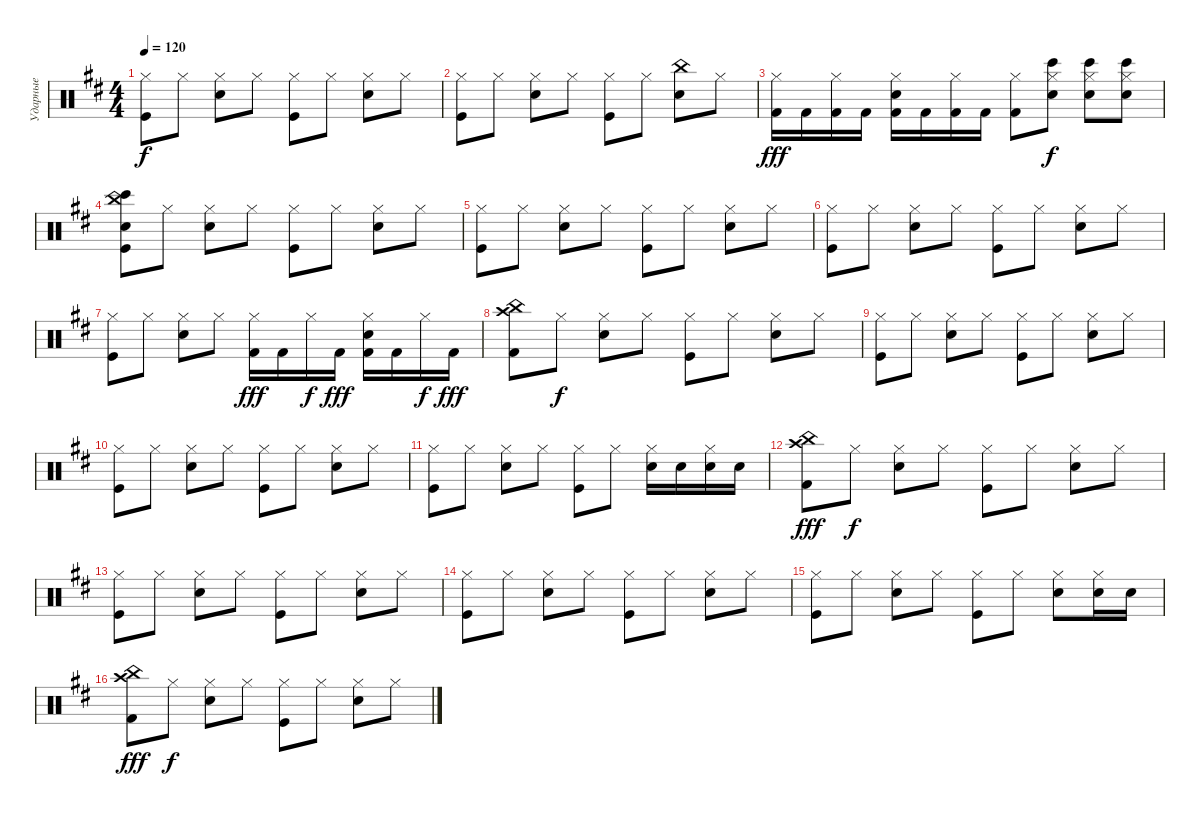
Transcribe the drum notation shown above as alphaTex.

\track ("Ударные" "Ударные") {instrument percussion}
\staff {score}
\articulation defaults
\ts (4 4)
\tempo 120
\clef neutral
\ks bminor
("Hi-Hat (closed)" "Kick (hit)").8{dy f} "Hi-Hat (closed)".8 ("Hi-Hat (closed)" "Snare (hit) 2").8 "Hi-Hat (closed)".8 ("Hi-Hat (closed)" "Kick (hit)").8 "Hi-Hat (closed)".8 ("Hi-Hat (closed)" "Snare (hit) 2").8 "Hi-Hat (closed)".8 |
("Hi-Hat (closed)" "Kick (hit)").8 "Hi-Hat (closed)".8 ("Hi-Hat (closed)" "Snare (hit) 2").8 "Hi-Hat (closed)".8 ("Hi-Hat (closed)" "Kick (hit)").8 "Hi-Hat (closed)".8 ("China (hit)" "Snare (hit) 2").8{balance 14} "Hi-Hat (closed)".8{balance 8} |
("Hi-Hat (closed)" "Kick (hit) 2").16{dy fff} "Kick (hit) 2".16 ("Hi-Hat (closed)" "Kick (hit) 2").16 "Kick (hit) 2".16 ("Hi-Hat (closed)" "Snare (hit) 2" "Kick (hit) 2").16 "Kick (hit) 2".16 ("Hi-Hat (closed)" "Kick (hit) 2").16 "Kick (hit) 2".16 ("Hi-Hat (closed)" "Kick (hit) 2").8 ("Hi-Hat (closed)" "Snare (hit) 2" "Bongo High (hit)").8{dy f} ("Hi-Hat (closed)" "Bongo High (hit)" "Snare (hit) 2").8 ("Hi-Hat (closed)" "Snare (hit) 2" "Bongo High (hit)").8 |
\ks d
("China (hit)" "Kick (hit)" "Bongo High (hit)" "Hand Clap (hit)").8 "Hi-Hat (closed)".8 ("Hi-Hat (closed)" "Snare (hit) 2").8 "Hi-Hat (closed)".8 ("Hi-Hat (closed)" "Kick (hit)").8 "Hi-Hat (closed)".8 ("Hi-Hat (closed)" "Snare (hit) 2").8 "Hi-Hat (closed)".8 |
("Hi-Hat (closed)" "Kick (hit)").8 "Hi-Hat (closed)".8 ("Hi-Hat (closed)" "Snare (hit) 2").8 "Hi-Hat (closed)".8 ("Hi-Hat (closed)" "Kick (hit)").8 "Hi-Hat (closed)".8 ("Hi-Hat (closed)" "Snare (hit) 2").8 "Hi-Hat (closed)".8 |
\ks bminor
("Hi-Hat (closed)" "Kick (hit)").8 "Hi-Hat (closed)".8 ("Hi-Hat (closed)" "Snare (hit) 2").8 "Hi-Hat (closed)".8 ("Hi-Hat (closed)" "Kick (hit)").8 "Hi-Hat (closed)".8 ("Hi-Hat (closed)" "Snare (hit) 2").8 "Hi-Hat (closed)".8 |
("Hi-Hat (closed)" "Kick (hit)").8 "Hi-Hat (closed)".8 ("Hi-Hat (closed)" "Snare (hit) 2").8 "Hi-Hat (closed)".8 ("Hi-Hat (closed)" "Kick (hit) 2").16{dy fff} "Kick (hit) 2".16 "Hi-Hat (closed)".16{dy f} "Kick (hit) 2".16{dy fff} ("Hi-Hat (closed)" "Snare (hit) 2" "Kick (hit) 2").16 "Kick (hit) 2".16 "Hi-Hat (closed)".16{dy f} "Kick (hit) 2".16{dy fff} |
("China (hit)" "Crash high (hit)" "Kick (hit) 2").8 "Hi-Hat (closed)".8{dy f} ("Hi-Hat (closed)" "Snare (hit) 2").8 "Hi-Hat (closed)".8 ("Hi-Hat (closed)" "Kick (hit)").8 "Hi-Hat (closed)".8 ("Hi-Hat (closed)" "Snare (hit) 2").8 "Hi-Hat (closed)".8 |
\ks d
("Hi-Hat (closed)" "Kick (hit)").8 "Hi-Hat (closed)".8 ("Hi-Hat (closed)" "Snare (hit) 2").8 "Hi-Hat (closed)".8 ("Hi-Hat (closed)" "Kick (hit)").8 "Hi-Hat (closed)".8 ("Hi-Hat (closed)" "Snare (hit) 2").8 "Hi-Hat (closed)".8 |
\ks bminor
("Hi-Hat (closed)" "Kick (hit)").8 "Hi-Hat (closed)".8 ("Hi-Hat (closed)" "Snare (hit) 2").8 "Hi-Hat (closed)".8 ("Hi-Hat (closed)" "Kick (hit)").8 "Hi-Hat (closed)".8 ("Hi-Hat (closed)" "Snare (hit) 2").8 "Hi-Hat (closed)".8 |
("Hi-Hat (closed)" "Kick (hit)").8 "Hi-Hat (closed)".8 ("Hi-Hat (closed)" "Snare (hit) 2").8 "Hi-Hat (closed)".8 ("Hi-Hat (closed)" "Kick (hit)").8 "Hi-Hat (closed)".8 ("Hi-Hat (closed)" "Snare (hit) 2").16 "Snare (hit) 2".16 ("Hi-Hat (closed)" "Snare (hit) 2").16 "Snare (hit) 2".16 |
\ks d
("China (hit)" "Crash high (hit)" "Kick (hit) 2").8{dy fff} "Hi-Hat (closed)".8{dy f} ("Hi-Hat (closed)" "Snare (hit) 2").8 "Hi-Hat (closed)".8 ("Hi-Hat (closed)" "Kick (hit)").8 "Hi-Hat (closed)".8 ("Hi-Hat (closed)" "Snare (hit) 2").8 "Hi-Hat (closed)".8 |
("Hi-Hat (closed)" "Kick (hit)").8 "Hi-Hat (closed)".8 ("Hi-Hat (closed)" "Snare (hit) 2").8 "Hi-Hat (closed)".8 ("Hi-Hat (closed)" "Kick (hit)").8 "Hi-Hat (closed)".8 ("Hi-Hat (closed)" "Snare (hit) 2").8 "Hi-Hat (closed)".8 |
\ks bminor
("Hi-Hat (closed)" "Kick (hit)").8 "Hi-Hat (closed)".8 ("Hi-Hat (closed)" "Snare (hit) 2").8 "Hi-Hat (closed)".8 ("Hi-Hat (closed)" "Kick (hit)").8 "Hi-Hat (closed)".8 ("Hi-Hat (closed)" "Snare (hit) 2").8 "Hi-Hat (closed)".8 |
("Hi-Hat (closed)" "Kick (hit)").8 "Hi-Hat (closed)".8 ("Hi-Hat (closed)" "Snare (hit) 2").8 "Hi-Hat (closed)".8 ("Hi-Hat (closed)" "Kick (hit)").8 "Hi-Hat (closed)".8 ("Hi-Hat (closed)" "Snare (hit) 2").8 ("Hi-Hat (closed)" "Snare (hit) 2").16 "Snare (hit) 2".16 |
("China (hit)" "Crash high (hit)" "Kick (hit) 2").8{dy fff} "Hi-Hat (closed)".8{dy f} ("Hi-Hat (closed)" "Snare (hit) 2").8 "Hi-Hat (closed)".8 ("Hi-Hat (closed)" "Kick (hit)").8 "Hi-Hat (closed)".8 ("Hi-Hat (closed)" "Snare (hit) 2").8 "Hi-Hat (closed)".8
